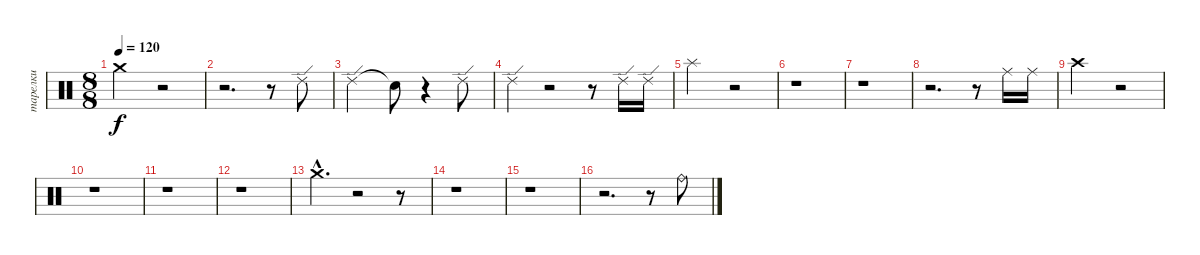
\track ("тарелки" "тарелки") {instrument percussion}
\staff {score}
\articulation defaults
\ts (8 8)
\tempo 120
\clef neutral
\ks c "Crash medium (hit)".2{dy f}
r.2 |
r.2{d} r.8 "Ride (edge) 2".8 |
"Ride (edge) 2".2 "Snare (hit)"{t}.8 r.4 "Ride (edge) 2".8 |
"Ride (edge) 2".4 r.2 r.8 "Ride (edge) 2".16 "Ride (edge) 2".16 |
"Splash (hit)".2 r.2 |
r.1 |
r.1 |
r.2{d} r.8 "Ride (middle)".16 "Ride (middle)".16 |
"Crash high (hit)".2 r.2 |
r.1 |
r.1 |
r.1 |
"Crash medium (hit)"{hac}.4{d volume 14} r.2 r.8 |
r.1 |
r.1 |
r.2{d} r.8 "Ride (bell)".8{volume 10}
